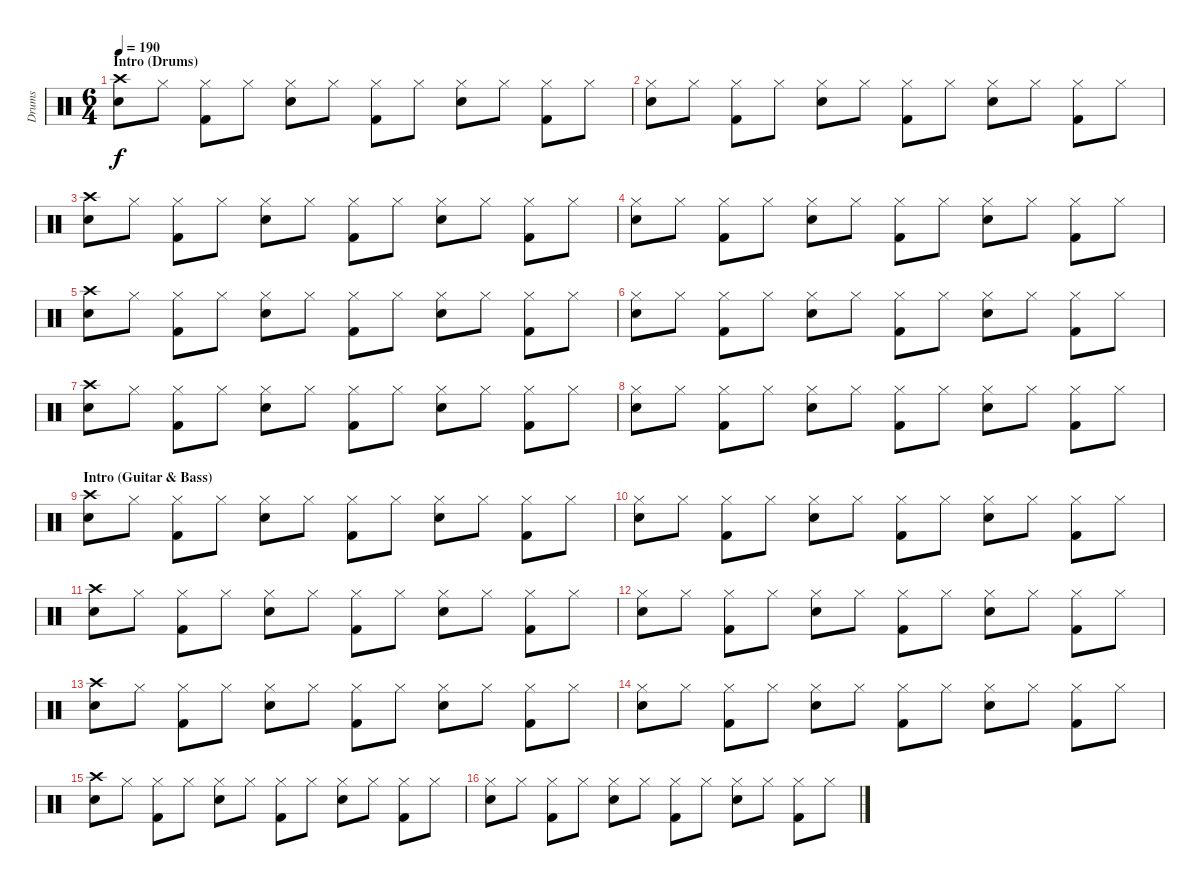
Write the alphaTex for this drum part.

\track ("Drums" "Drums") {instrument percussion}
\staff {score}
\articulation defaults
\ts (6 4)
\section ("" "Intro (Drums)")
\tempo 190
\clef neutral
\ks c
("Crash high (hit)" "Snare (hit) 2").8{dy f} "Hi-Hat (closed)".8 ("Hi-Hat (closed)" "Kick (hit) 2").8 "Hi-Hat (closed)".8 ("Hi-Hat (closed)" "Snare (hit) 2").8 "Hi-Hat (closed)".8 ("Hi-Hat (closed)" "Kick (hit) 2").8 "Hi-Hat (closed)".8 ("Hi-Hat (closed)" "Snare (hit) 2").8 "Hi-Hat (closed)".8 ("Hi-Hat (closed)" "Kick (hit) 2").8 "Hi-Hat (closed)".8 |
("Hi-Hat (closed)" "Snare (hit) 2").8 "Hi-Hat (closed)".8 ("Hi-Hat (closed)" "Kick (hit) 2").8 "Hi-Hat (closed)".8 ("Hi-Hat (closed)" "Snare (hit) 2").8 "Hi-Hat (closed)".8 ("Hi-Hat (closed)" "Kick (hit) 2").8 "Hi-Hat (closed)".8 ("Hi-Hat (closed)" "Snare (hit) 2").8 "Hi-Hat (closed)".8 ("Hi-Hat (closed)" "Kick (hit) 2").8 "Hi-Hat (closed)".8 |
("Crash high (hit)" "Snare (hit) 2").8 "Hi-Hat (closed)".8 ("Hi-Hat (closed)" "Kick (hit) 2").8 "Hi-Hat (closed)".8 ("Hi-Hat (closed)" "Snare (hit) 2").8 "Hi-Hat (closed)".8 ("Hi-Hat (closed)" "Kick (hit) 2").8 "Hi-Hat (closed)".8 ("Hi-Hat (closed)" "Snare (hit) 2").8 "Hi-Hat (closed)".8 ("Hi-Hat (closed)" "Kick (hit) 2").8 "Hi-Hat (closed)".8 |
("Hi-Hat (closed)" "Snare (hit) 2").8 "Hi-Hat (closed)".8 ("Hi-Hat (closed)" "Kick (hit) 2").8 "Hi-Hat (closed)".8 ("Hi-Hat (closed)" "Snare (hit) 2").8 "Hi-Hat (closed)".8 ("Hi-Hat (closed)" "Kick (hit) 2").8 "Hi-Hat (closed)".8 ("Hi-Hat (closed)" "Snare (hit) 2").8 "Hi-Hat (closed)".8 ("Hi-Hat (closed)" "Kick (hit) 2").8 "Hi-Hat (closed)".8 |
("Crash high (hit)" "Snare (hit) 2").8 "Hi-Hat (closed)".8 ("Hi-Hat (closed)" "Kick (hit) 2").8 "Hi-Hat (closed)".8 ("Hi-Hat (closed)" "Snare (hit) 2").8 "Hi-Hat (closed)".8 ("Hi-Hat (closed)" "Kick (hit) 2").8 "Hi-Hat (closed)".8 ("Hi-Hat (closed)" "Snare (hit) 2").8 "Hi-Hat (closed)".8 ("Hi-Hat (closed)" "Kick (hit) 2").8 "Hi-Hat (closed)".8 |
("Hi-Hat (closed)" "Snare (hit) 2").8 "Hi-Hat (closed)".8 ("Hi-Hat (closed)" "Kick (hit) 2").8 "Hi-Hat (closed)".8 ("Hi-Hat (closed)" "Snare (hit) 2").8 "Hi-Hat (closed)".8 ("Hi-Hat (closed)" "Kick (hit) 2").8 "Hi-Hat (closed)".8 ("Hi-Hat (closed)" "Snare (hit) 2").8 "Hi-Hat (closed)".8 ("Hi-Hat (closed)" "Kick (hit) 2").8 "Hi-Hat (closed)".8 |
("Crash high (hit)" "Snare (hit) 2").8 "Hi-Hat (closed)".8 ("Hi-Hat (closed)" "Kick (hit) 2").8 "Hi-Hat (closed)".8 ("Hi-Hat (closed)" "Snare (hit) 2").8 "Hi-Hat (closed)".8 ("Hi-Hat (closed)" "Kick (hit) 2").8 "Hi-Hat (closed)".8 ("Hi-Hat (closed)" "Snare (hit) 2").8 "Hi-Hat (closed)".8 ("Hi-Hat (closed)" "Kick (hit) 2").8 "Hi-Hat (closed)".8 |
("Hi-Hat (closed)" "Snare (hit) 2").8 "Hi-Hat (closed)".8 ("Hi-Hat (closed)" "Kick (hit) 2").8 "Hi-Hat (closed)".8 ("Hi-Hat (closed)" "Snare (hit) 2").8 "Hi-Hat (closed)".8 ("Hi-Hat (closed)" "Kick (hit) 2").8 "Hi-Hat (closed)".8 ("Hi-Hat (closed)" "Snare (hit) 2").8 "Hi-Hat (closed)".8 ("Hi-Hat (closed)" "Kick (hit) 2").8 "Hi-Hat (closed)".8 |
\section ("" "Intro (Guitar & Bass)")
("Crash high (hit)" "Snare (hit) 2").8 "Hi-Hat (closed)".8 ("Hi-Hat (closed)" "Kick (hit) 2").8 "Hi-Hat (closed)".8 ("Hi-Hat (closed)" "Snare (hit) 2").8 "Hi-Hat (closed)".8 ("Hi-Hat (closed)" "Kick (hit) 2").8 "Hi-Hat (closed)".8 ("Hi-Hat (closed)" "Snare (hit) 2").8 "Hi-Hat (closed)".8 ("Hi-Hat (closed)" "Kick (hit) 2").8 "Hi-Hat (closed)".8 |
("Hi-Hat (closed)" "Snare (hit) 2").8 "Hi-Hat (closed)".8 ("Hi-Hat (closed)" "Kick (hit) 2").8 "Hi-Hat (closed)".8 ("Hi-Hat (closed)" "Snare (hit) 2").8 "Hi-Hat (closed)".8 ("Hi-Hat (closed)" "Kick (hit) 2").8 "Hi-Hat (closed)".8 ("Hi-Hat (closed)" "Snare (hit) 2").8 "Hi-Hat (closed)".8 ("Hi-Hat (closed)" "Kick (hit) 2").8 "Hi-Hat (closed)".8 |
("Crash high (hit)" "Snare (hit) 2").8 "Hi-Hat (closed)".8 ("Hi-Hat (closed)" "Kick (hit) 2").8 "Hi-Hat (closed)".8 ("Hi-Hat (closed)" "Snare (hit) 2").8 "Hi-Hat (closed)".8 ("Hi-Hat (closed)" "Kick (hit) 2").8 "Hi-Hat (closed)".8 ("Hi-Hat (closed)" "Snare (hit) 2").8 "Hi-Hat (closed)".8 ("Hi-Hat (closed)" "Kick (hit) 2").8 "Hi-Hat (closed)".8 |
("Hi-Hat (closed)" "Snare (hit) 2").8 "Hi-Hat (closed)".8 ("Hi-Hat (closed)" "Kick (hit) 2").8 "Hi-Hat (closed)".8 ("Hi-Hat (closed)" "Snare (hit) 2").8 "Hi-Hat (closed)".8 ("Hi-Hat (closed)" "Kick (hit) 2").8 "Hi-Hat (closed)".8 ("Hi-Hat (closed)" "Snare (hit) 2").8 "Hi-Hat (closed)".8 ("Hi-Hat (closed)" "Kick (hit) 2").8 "Hi-Hat (closed)".8 |
("Crash high (hit)" "Snare (hit) 2").8 "Hi-Hat (closed)".8 ("Hi-Hat (closed)" "Kick (hit) 2").8 "Hi-Hat (closed)".8 ("Hi-Hat (closed)" "Snare (hit) 2").8 "Hi-Hat (closed)".8 ("Hi-Hat (closed)" "Kick (hit) 2").8 "Hi-Hat (closed)".8 ("Hi-Hat (closed)" "Snare (hit) 2").8 "Hi-Hat (closed)".8 ("Hi-Hat (closed)" "Kick (hit) 2").8 "Hi-Hat (closed)".8 |
("Hi-Hat (closed)" "Snare (hit) 2").8 "Hi-Hat (closed)".8 ("Hi-Hat (closed)" "Kick (hit) 2").8 "Hi-Hat (closed)".8 ("Hi-Hat (closed)" "Snare (hit) 2").8 "Hi-Hat (closed)".8 ("Hi-Hat (closed)" "Kick (hit) 2").8 "Hi-Hat (closed)".8 ("Hi-Hat (closed)" "Snare (hit) 2").8 "Hi-Hat (closed)".8 ("Hi-Hat (closed)" "Kick (hit) 2").8 "Hi-Hat (closed)".8 |
("Crash high (hit)" "Snare (hit) 2").8 "Hi-Hat (closed)".8 ("Hi-Hat (closed)" "Kick (hit) 2").8 "Hi-Hat (closed)".8 ("Hi-Hat (closed)" "Snare (hit) 2").8 "Hi-Hat (closed)".8 ("Hi-Hat (closed)" "Kick (hit) 2").8 "Hi-Hat (closed)".8 ("Hi-Hat (closed)" "Snare (hit) 2").8 "Hi-Hat (closed)".8 ("Hi-Hat (closed)" "Kick (hit) 2").8 "Hi-Hat (closed)".8 |
("Hi-Hat (closed)" "Snare (hit) 2").8 "Hi-Hat (closed)".8 ("Hi-Hat (closed)" "Kick (hit) 2").8 "Hi-Hat (closed)".8 ("Hi-Hat (closed)" "Snare (hit) 2").8 "Hi-Hat (closed)".8 ("Hi-Hat (closed)" "Kick (hit) 2").8 "Hi-Hat (closed)".8 ("Hi-Hat (closed)" "Snare (hit) 2").8 "Hi-Hat (closed)".8 ("Hi-Hat (closed)" "Kick (hit) 2").8 "Hi-Hat (closed)".8
